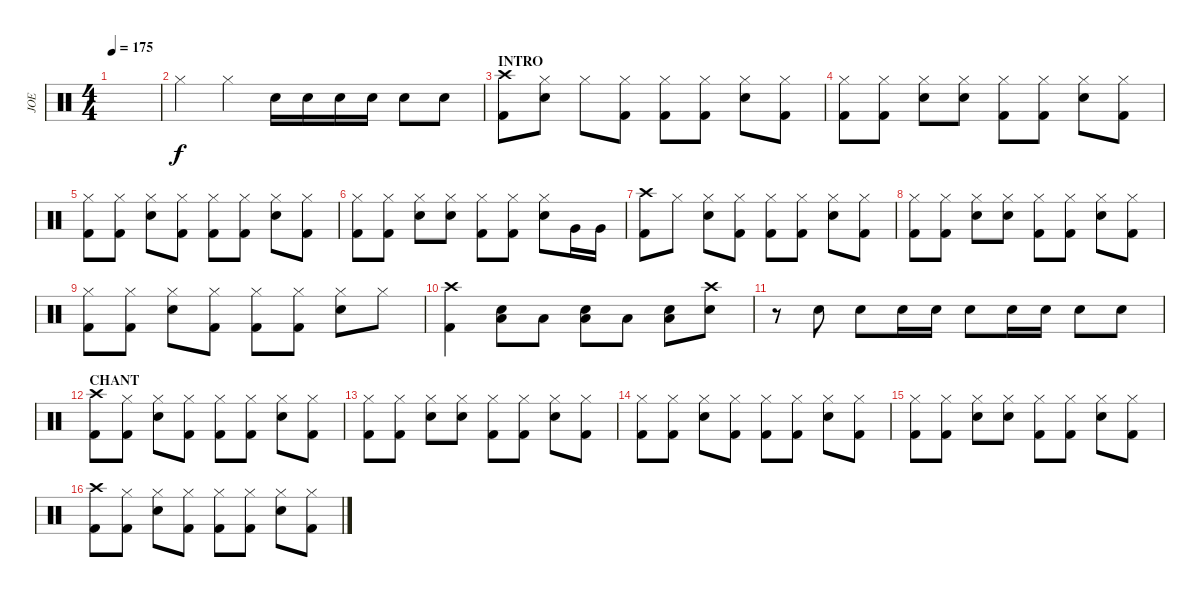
\track ("JOE" "JOE") {instrument percussion}
\staff {score}
\articulation defaults
\ts (4 4)
\tempo 175
\clef neutral
\ks c
|
"Hi-Hat (closed)".4 "Hi-Hat (closed)".4 "Snare (hit) 2".16 "Snare (hit) 2".16 "Snare (hit) 2".16 "Snare (hit) 2".16 "Snare (hit) 2".8 "Snare (hit) 2".8 |
\section ("" "INTRO ")
("Crash high (hit)" "Kick (hit) 2").8 ("Hi-Hat (closed)" "Snare (hit) 2").8 "Hi-Hat (closed)".8 ("Hi-Hat (closed)" "Kick (hit) 2").8 ("Hi-Hat (closed)" "Kick (hit) 2").8 ("Hi-Hat (closed)" "Kick (hit) 2").8 ("Hi-Hat (closed)" "Snare (hit) 2").8 ("Hi-Hat (closed)" "Kick (hit) 2").8 |
("Hi-Hat (closed)" "Kick (hit) 2").8 ("Hi-Hat (closed)" "Kick (hit) 2").8 ("Hi-Hat (closed)" "Snare (hit) 2").8 ("Hi-Hat (closed)" "Snare (hit) 2").8 ("Hi-Hat (closed)" "Kick (hit) 2").8 ("Hi-Hat (closed)" "Kick (hit) 2").8 ("Hi-Hat (closed)" "Snare (hit) 2").8 ("Hi-Hat (closed)" "Kick (hit) 2").8 |
("Hi-Hat (closed)" "Kick (hit) 2").8 ("Hi-Hat (closed)" "Kick (hit) 2").8 ("Hi-Hat (closed)" "Snare (hit) 2").8 ("Hi-Hat (closed)" "Kick (hit) 2").8 ("Hi-Hat (closed)" "Kick (hit) 2").8 ("Hi-Hat (closed)" "Kick (hit) 2").8 ("Hi-Hat (closed)" "Snare (hit) 2").8 ("Hi-Hat (closed)" "Kick (hit) 2").8 |
("Hi-Hat (closed)" "Kick (hit) 2").8 ("Hi-Hat (closed)" "Kick (hit) 2").8 ("Hi-Hat (closed)" "Snare (hit) 2").8 ("Hi-Hat (closed)" "Snare (hit) 2").8 ("Hi-Hat (closed)" "Kick (hit) 2").8 ("Hi-Hat (closed)" "Kick (hit) 2").8 ("Hi-Hat (closed)" "Snare (hit) 2").8 "Very Low Tom (hit)".16 "Very Low Tom (hit)".16 |
("Crash high (hit)" "Kick (hit) 2").8 "Hi-Hat (closed)".8 ("Hi-Hat (closed)" "Snare (hit) 2").8 ("Hi-Hat (closed)" "Kick (hit) 2").8 ("Hi-Hat (closed)" "Kick (hit) 2").8 ("Hi-Hat (closed)" "Kick (hit) 2").8 ("Hi-Hat (closed)" "Snare (hit) 2").8 ("Hi-Hat (closed)" "Kick (hit) 2").8 |
("Hi-Hat (closed)" "Kick (hit) 2").8 ("Hi-Hat (closed)" "Kick (hit) 2").8 ("Hi-Hat (closed)" "Snare (hit) 2").8 ("Hi-Hat (closed)" "Snare (hit) 2").8 ("Hi-Hat (closed)" "Kick (hit) 2").8 ("Hi-Hat (closed)" "Kick (hit) 2").8 ("Hi-Hat (closed)" "Snare (hit) 2").8 ("Hi-Hat (closed)" "Kick (hit) 2").8 |
("Hi-Hat (closed)" "Kick (hit) 2").8 ("Hi-Hat (closed)" "Kick (hit) 2").8 ("Hi-Hat (closed)" "Snare (hit) 2").8 ("Hi-Hat (closed)" "Kick (hit) 2").8 ("Hi-Hat (closed)" "Kick (hit) 2").8 ("Hi-Hat (closed)" "Kick (hit) 2").8 ("Hi-Hat (closed)" "Snare (hit) 2").8 "Hi-Hat (closed)".8 |
("Crash high (hit)" "Kick (hit) 2").4 ("Snare (hit) 2" "Low Floor Tom (hit)").8 "Low Floor Tom (hit)".8 ("Snare (hit) 2" "Low Floor Tom (hit)").8 "Low Floor Tom (hit)".8 ("Snare (hit) 2" "Low Floor Tom (hit)").8 ("Crash high (hit)" "Snare (hit) 2").8 |
r.8 "Snare (hit) 2".8 "Snare (hit) 2".8 "Snare (hit) 2".16 "Snare (hit) 2".16 "Snare (hit) 2".8 "Snare (hit) 2".16 "Snare (hit) 2".16 "Snare (hit) 2".8 "Snare (hit) 2".8 |
\section ("" "CHANT")
("Crash high (hit)" "Kick (hit) 2").8 ("Hi-Hat (closed)" "Kick (hit) 2").8 ("Hi-Hat (closed)" "Snare (hit) 2").8 ("Hi-Hat (closed)" "Kick (hit) 2").8 ("Hi-Hat (closed)" "Kick (hit) 2").8 ("Hi-Hat (closed)" "Kick (hit) 2").8 ("Hi-Hat (closed)" "Snare (hit) 2").8 ("Hi-Hat (closed)" "Kick (hit) 2").8 |
("Hi-Hat (closed)" "Kick (hit) 2").8 ("Hi-Hat (closed)" "Kick (hit) 2").8 ("Hi-Hat (closed)" "Snare (hit) 2").8 ("Hi-Hat (closed)" "Snare (hit) 2").8 ("Hi-Hat (closed)" "Kick (hit) 2").8 ("Hi-Hat (closed)" "Kick (hit) 2").8 ("Hi-Hat (closed)" "Snare (hit) 2").8 ("Hi-Hat (closed)" "Kick (hit) 2").8 |
("Hi-Hat (closed)" "Kick (hit) 2").8 ("Hi-Hat (closed)" "Kick (hit) 2").8 ("Hi-Hat (closed)" "Snare (hit) 2").8 ("Hi-Hat (closed)" "Kick (hit) 2").8 ("Hi-Hat (closed)" "Kick (hit) 2").8 ("Hi-Hat (closed)" "Kick (hit) 2").8 ("Hi-Hat (closed)" "Snare (hit) 2").8 ("Hi-Hat (closed)" "Kick (hit) 2").8 |
("Hi-Hat (closed)" "Kick (hit) 2").8 ("Hi-Hat (closed)" "Kick (hit) 2").8 ("Hi-Hat (closed)" "Snare (hit) 2").8 ("Hi-Hat (closed)" "Snare (hit) 2").8 ("Hi-Hat (closed)" "Kick (hit) 2").8 ("Hi-Hat (closed)" "Kick (hit) 2").8 ("Hi-Hat (closed)" "Snare (hit) 2").8 ("Hi-Hat (closed)" "Kick (hit) 2").8 |
("Crash high (hit)" "Kick (hit) 2").8 ("Hi-Hat (closed)" "Kick (hit) 2").8 ("Hi-Hat (closed)" "Snare (hit) 2").8 ("Hi-Hat (closed)" "Kick (hit) 2").8 ("Hi-Hat (closed)" "Kick (hit) 2").8 ("Hi-Hat (closed)" "Kick (hit) 2").8 ("Hi-Hat (closed)" "Snare (hit) 2").8 ("Hi-Hat (closed)" "Kick (hit) 2").8
